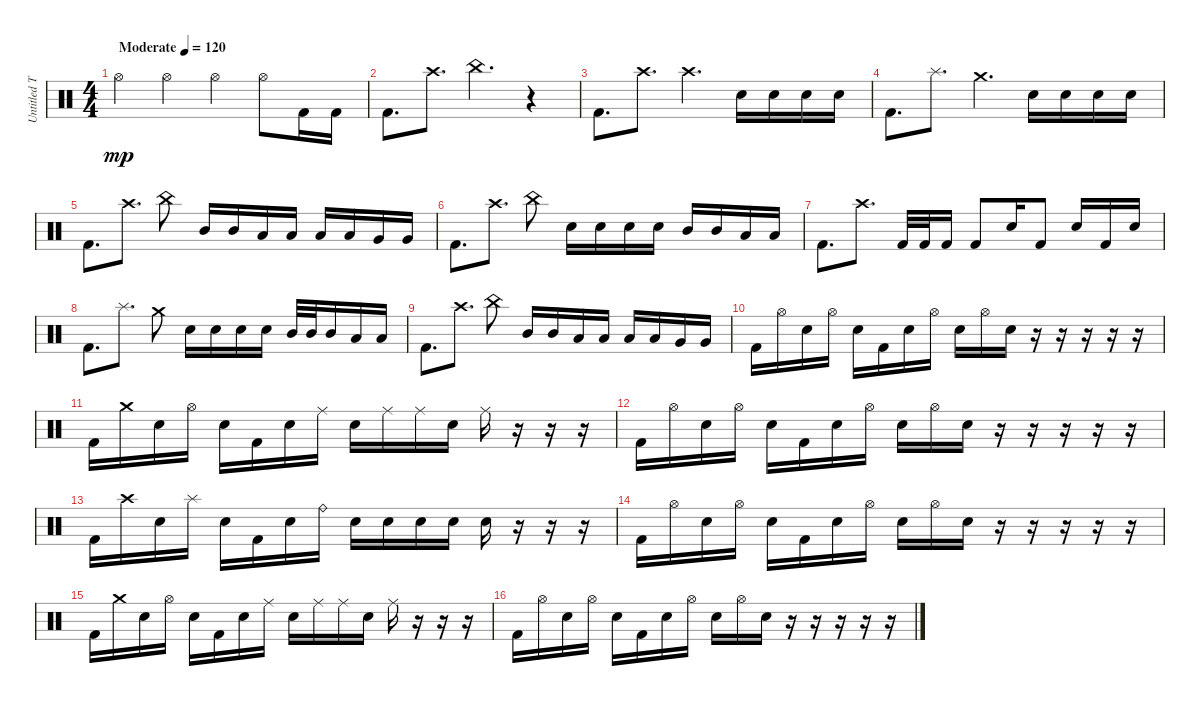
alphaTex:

\track ("Untitled Track" "Untitled T") {instrument percussion}
\staff {score}
\articulation defaults
\ts (4 4)
\tempo (120 "Moderate")
\clef neutral
\ks c "Hi-Hat (open)".4{dy mp} "Hi-Hat (open)".4 "Hi-Hat (open)".4 "Hi-Hat (open)".8 "Kick (hit) 2".16 "Kick (hit) 2".16
|
"Kick (hit) 2".8{d} "Crash high (hit)".8{d} "China (hit)".4{d} r.4 |
"Kick (hit) 2".8{d} "Crash high (hit)".8{d} "Crash high (hit)".4{d} "Snare (hit) 2".16 "Snare (hit) 2".16 "Snare (hit) 2".16 "Snare (hit) 2".16 |
"Kick (hit) 2".8{d} "Splash (hit)".8{d} "Crash medium (hit)".4{d} "Snare (hit) 2".16 "Snare (hit) 2".16 "Snare (hit) 2".16 "Snare (hit) 2".16 |
"Kick (hit) 2".8{d} "Crash high (hit)".8{d} "China (hit)".8 "Mid Tom (hit)".16 "Mid Tom (hit)".16 "Low Tom (hit)".16 "Low Tom (hit)".16 "Low Tom (hit)".16 "Low Tom (hit)".16 "Very Low Tom (hit)".16 "Very Low Tom (hit)".16 |
"Kick (hit) 2".8{d} "Crash high (hit)".8{d} "China (hit)".8 "Snare (hit) 2".16 "Snare (hit) 2".16 "Snare (hit) 2".16 "Snare (hit) 2".16 "Mid Tom (hit)".16 "Mid Tom (hit)".16 "Low Tom (hit)".16 "Low Tom (hit)".16 |
"Kick (hit) 2".8{d} "Crash high (hit)".8{d} "Kick (hit) 2".32 "Kick (hit) 2".32 "Kick (hit) 2".16 "Kick (hit) 2".8 "Snare (hit) 2".16 "Kick (hit) 2".8 "Snare (hit) 2".16 "Kick (hit) 2".16 "Snare (hit) 2".16 |
"Kick (hit) 2".8{d} "Splash (hit)".8{d} "Crash medium (hit)".8 "Snare (hit) 2".16 "Snare (hit) 2".16 "Snare (hit) 2".16 "Snare (hit) 2".16 "Mid Tom (hit)".32 "Mid Tom (hit)".32 "Mid Tom (hit)".16 "Low Tom (hit)".16 "Low Tom (hit)".16 |
"Kick (hit) 2".8{d} "Crash high (hit)".8{d} "China (hit)".8 "Mid Tom (hit)".16 "Mid Tom (hit)".16 "Low Tom (hit)".16 "Low Tom (hit)".16 "Low Tom (hit)".16 "Low Tom (hit)".16 "Very Low Tom (hit)".16 "Very Low Tom (hit)".16 |
"Kick (hit) 2".16 "Hi-Hat (open)".16 "Snare (hit) 2".16 "Hi-Hat (open)".16 "Snare (hit) 2".16 "Kick (hit) 2".16 "Snare (hit) 2".16 "Hi-Hat (open)".16 "Snare (hit) 2".16 "Hi-Hat (open)".16 "Snare (hit) 2".16 r.16 r.16 r.16 r.16 r.16 |
"Kick (hit) 2".16 "Crash medium (hit)".16 "Snare (hit) 2".16 "Hi-Hat (open)".16 "Snare (hit) 2".16 "Kick (hit) 2".16 "Snare (hit) 2".16 "Ride (middle)".16 "Snare (hit) 2".16 "Ride (middle)".16 "Ride (middle)".16 "Snare (hit) 2".16 "Ride (middle)".16 r.16 r.16 r.16 |
"Kick (hit) 2".16 "Hi-Hat (open)".16 "Snare (hit) 2".16 "Hi-Hat (open)".16 "Snare (hit) 2".16 "Kick (hit) 2".16 "Snare (hit) 2".16 "Hi-Hat (open)".16 "Snare (hit) 2".16 "Hi-Hat (open)".16 "Snare (hit) 2".16 r.16 r.16 r.16 r.16 r.16 |
"Kick (hit) 2".16 "Crash high (hit)".16 "Snare (hit) 2".16 "Splash (hit)".16 "Snare (hit) 2".16 "Kick (hit) 2".16 "Snare (hit) 2".16 "Ride (bell)".16 "Snare (hit) 2".16 "Snare (hit) 2".16 "Snare (hit) 2".16 "Snare (hit) 2".16 "Snare (hit) 2".16 r.16 r.16 r.16 |
"Kick (hit) 2".16 "Hi-Hat (open)".16 "Snare (hit) 2".16 "Hi-Hat (open)".16 "Snare (hit) 2".16 "Kick (hit) 2".16 "Snare (hit) 2".16 "Hi-Hat (open)".16 "Snare (hit) 2".16 "Hi-Hat (open)".16 "Snare (hit) 2".16 r.16 r.16 r.16 r.16 r.16 |
"Kick (hit) 2".16 "Crash medium (hit)".16 "Snare (hit) 2".16 "Hi-Hat (open)".16 "Snare (hit) 2".16 "Kick (hit) 2".16 "Snare (hit) 2".16 "Ride (middle)".16 "Snare (hit) 2".16 "Ride (middle)".16 "Ride (middle)".16 "Snare (hit) 2".16 "Ride (middle)".16 r.16 r.16 r.16 |
"Kick (hit) 2".16 "Hi-Hat (open)".16 "Snare (hit) 2".16 "Hi-Hat (open)".16 "Snare (hit) 2".16 "Kick (hit) 2".16 "Snare (hit) 2".16 "Hi-Hat (open)".16 "Snare (hit) 2".16 "Hi-Hat (open)".16 "Snare (hit) 2".16 r.16 r.16 r.16 r.16 r.16
